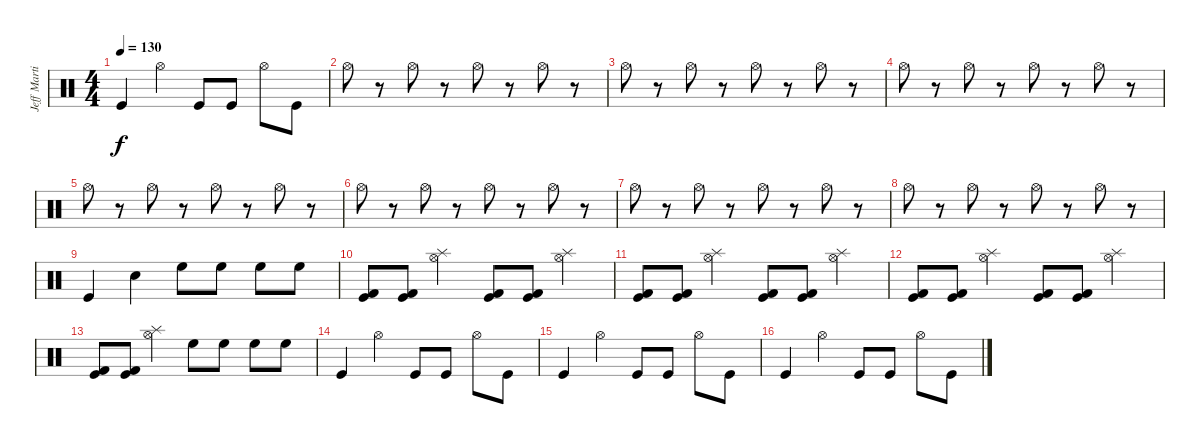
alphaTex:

\track ("Jeff Martin" "Jeff Marti") {instrument percussion}
\staff {score}
\articulation defaults
\ts (4 4)
\tempo 130
\clef neutral
\ks c "Kick (hit)".4{dy f} "Hi-Hat (open)".4 "Kick (hit)".8 "Kick (hit)".8 "Hi-Hat (open)".8 "Kick (hit)".8
|
"Hi-Hat (open)".8 r.8 "Hi-Hat (open)".8 r.8 "Hi-Hat (open)".8 r.8 "Hi-Hat (open)".8 r.8 |
"Hi-Hat (open)".8 r.8 "Hi-Hat (open)".8 r.8 "Hi-Hat (open)".8 r.8 "Hi-Hat (open)".8 r.8 |
"Hi-Hat (open)".8 r.8 "Hi-Hat (open)".8 r.8 "Hi-Hat (open)".8 r.8 "Hi-Hat (open)".8 r.8 |
"Hi-Hat (open)".8 r.8 "Hi-Hat (open)".8 r.8 "Hi-Hat (open)".8 r.8 "Hi-Hat (open)".8 r.8 |
"Hi-Hat (open)".8 r.8 "Hi-Hat (open)".8 r.8 "Hi-Hat (open)".8 r.8 "Hi-Hat (open)".8 r.8 |
"Hi-Hat (open)".8 r.8 "Hi-Hat (open)".8 r.8 "Hi-Hat (open)".8 r.8 "Hi-Hat (open)".8 r.8 |
"Hi-Hat (open)".8 r.8 "Hi-Hat (open)".8 r.8 "Hi-Hat (open)".8 r.8 "Hi-Hat (open)".8 r.8 |
"Kick (hit)".4 "Snare (hit) 2".4 "High Floor Tom (hit)".8 "High Floor Tom (hit)".8 "High Floor Tom (hit)".8 "High Floor Tom (hit)".8 |
("Kick (hit) 2" "Kick (hit)").8 ("Kick (hit) 2" "Kick (hit)").8 ("Splash (hit)" "Hi-Hat (open)").4 ("Kick (hit) 2" "Kick (hit)").8 ("Kick (hit) 2" "Kick (hit)").8 ("Splash (hit)" "Hi-Hat (open)").4 |
("Kick (hit) 2" "Kick (hit)").8 ("Kick (hit) 2" "Kick (hit)").8 ("Splash (hit)" "Hi-Hat (open)").4 ("Kick (hit) 2" "Kick (hit)").8 ("Kick (hit) 2" "Kick (hit)").8 ("Splash (hit)" "Hi-Hat (open)").4 |
("Kick (hit) 2" "Kick (hit)").8 ("Kick (hit) 2" "Kick (hit)").8 ("Splash (hit)" "Hi-Hat (open)").4 ("Kick (hit) 2" "Kick (hit)").8 ("Kick (hit) 2" "Kick (hit)").8 ("Splash (hit)" "Hi-Hat (open)").4 |
("Kick (hit) 2" "Kick (hit)").8 ("Kick (hit) 2" "Kick (hit)").8 ("Splash (hit)" "Hi-Hat (open)").4 "High Floor Tom (hit)".8 "High Floor Tom (hit)".8 "High Floor Tom (hit)".8 "High Floor Tom (hit)".8 |
"Kick (hit)".4 "Hi-Hat (open)".4 "Kick (hit)".8 "Kick (hit)".8 "Hi-Hat (open)".8 "Kick (hit)".8 |
"Kick (hit)".4 "Hi-Hat (open)".4 "Kick (hit)".8 "Kick (hit)".8 "Hi-Hat (open)".8 "Kick (hit)".8 |
"Kick (hit)".4 "Hi-Hat (open)".4 "Kick (hit)".8 "Kick (hit)".8 "Hi-Hat (open)".8 "Kick (hit)".8
